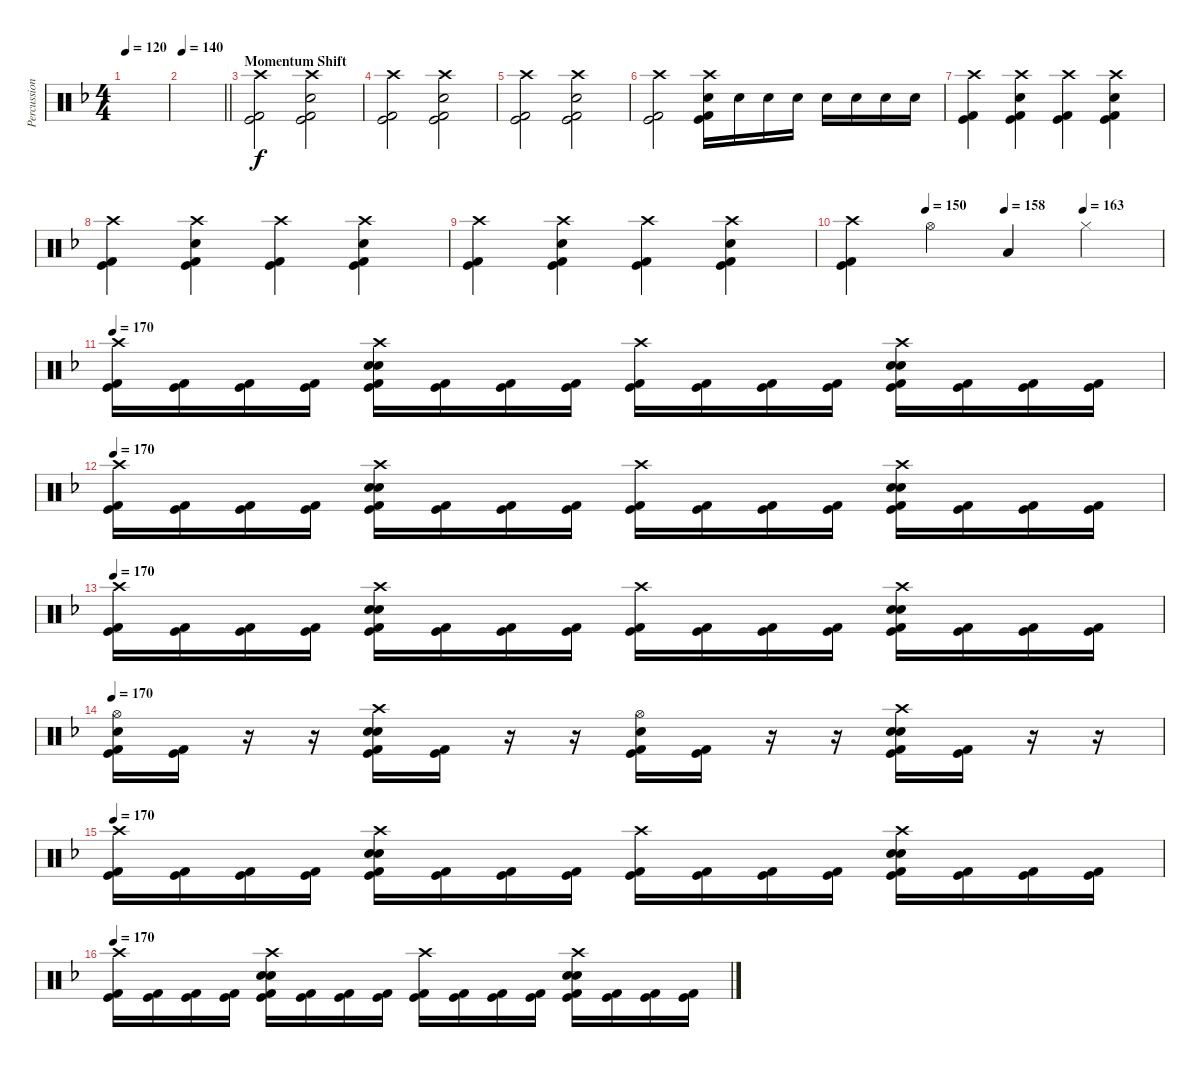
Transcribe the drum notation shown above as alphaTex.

\track ("Percussion" "Percussion") {instrument percussion}
\staff {score}
\articulation defaults
\ts (4 4)
\tempo 120
\clef neutral
\ks dminor
|
\tempo 140
\barLineRight lightlight
|
\section ("" "Momentum Shift")
("Crash high (hit)" "Kick (hit) 2" "Kick (hit)").2 ("Snare (hit) 2" "Crash high (hit)" "Kick (hit) 2" "Kick (hit)").2 |
("Crash high (hit)" "Kick (hit) 2" "Kick (hit)").2 ("Snare (hit) 2" "Crash high (hit)" "Kick (hit) 2" "Kick (hit)").2 |
("Crash high (hit)" "Kick (hit) 2" "Kick (hit)").2 ("Snare (hit) 2" "Crash high (hit)" "Kick (hit) 2" "Kick (hit)").2 |
("Crash high (hit)" "Kick (hit) 2" "Kick (hit)").2 ("Snare (hit) 2" "Crash high (hit)" "Kick (hit) 2" "Kick (hit)").16 "Snare (hit) 2".16 "Snare (hit) 2".16 "Snare (hit) 2".16 "Snare (hit) 2".16 "Snare (hit) 2".16 "Snare (hit) 2".16 "Snare (hit) 2".16 |
("Crash high (hit)" "Kick (hit) 2" "Kick (hit)").4 ("Snare (hit) 2" "Crash high (hit)" "Kick (hit) 2" "Kick (hit)").4 ("Crash high (hit)" "Kick (hit)" "Kick (hit) 2").4 ("Snare (hit) 2" "Crash high (hit)" "Kick (hit) 2" "Kick (hit)").4 |
("Crash high (hit)" "Kick (hit) 2" "Kick (hit)").4 ("Snare (hit) 2" "Crash high (hit)" "Kick (hit) 2" "Kick (hit)").4 ("Crash high (hit)" "Kick (hit)" "Kick (hit) 2").4 ("Snare (hit) 2" "Crash high (hit)" "Kick (hit) 2" "Kick (hit)").4 |
("Crash high (hit)" "Kick (hit) 2" "Kick (hit)").4 ("Snare (hit) 2" "Crash high (hit)" "Kick (hit) 2" "Kick (hit)").4 ("Crash high (hit)" "Kick (hit)" "Kick (hit) 2").4 ("Snare (hit) 2" "Crash high (hit)" "Kick (hit) 2" "Kick (hit)").4 |
\tempo (150 0.25)
\tempo (158 0.5)
\tempo (163 0.75)
("Crash high (hit)" "Kick (hit) 2" "Kick (hit)").4 "Hi-Hat (open)".4 "Low Floor Tom (hit)".4 "Hi-Hat (closed)".4 |
\tempo 170
("Crash high (hit)" "Kick (hit) 2" "Kick (hit)").16 ("Kick (hit) 2" "Kick (hit)").16 ("Kick (hit) 2" "Kick (hit)").16 ("Kick (hit) 2" "Kick (hit)").16 ("Crash high (hit)" "Electric Snare (hit)" "Electric Snare (hit)" "Kick (hit) 2" "Kick (hit)").16 ("Kick (hit) 2" "Kick (hit)").16 ("Kick (hit) 2" "Kick (hit)").16 ("Kick (hit) 2" "Kick (hit)").16 ("Crash high (hit)" "Kick (hit) 2" "Kick (hit)").16 ("Kick (hit) 2" "Kick (hit)").16 ("Kick (hit) 2" "Kick (hit)").16 ("Kick (hit) 2" "Kick (hit)").16 ("Crash high (hit)" "Electric Snare (hit)" "Electric Snare (hit)" "Kick (hit) 2" "Kick (hit)").16 ("Kick (hit) 2" "Kick (hit)").16 ("Kick (hit) 2" "Kick (hit)").16 ("Kick (hit) 2" "Kick (hit)").16 |
\tempo 170
("Crash high (hit)" "Kick (hit) 2" "Kick (hit)").16 ("Kick (hit) 2" "Kick (hit)").16 ("Kick (hit) 2" "Kick (hit)").16 ("Kick (hit) 2" "Kick (hit)").16 ("Crash high (hit)" "Electric Snare (hit)" "Electric Snare (hit)" "Kick (hit) 2" "Kick (hit)").16 ("Kick (hit) 2" "Kick (hit)").16 ("Kick (hit) 2" "Kick (hit)").16 ("Kick (hit) 2" "Kick (hit)").16 ("Crash high (hit)" "Kick (hit) 2" "Kick (hit)").16 ("Kick (hit) 2" "Kick (hit)").16 ("Kick (hit) 2" "Kick (hit)").16 ("Kick (hit) 2" "Kick (hit)").16 ("Crash high (hit)" "Electric Snare (hit)" "Electric Snare (hit)" "Kick (hit) 2" "Kick (hit)").16 ("Kick (hit) 2" "Kick (hit)").16 ("Kick (hit) 2" "Kick (hit)").16 ("Kick (hit) 2" "Kick (hit)").16 |
\tempo 170
("Crash high (hit)" "Kick (hit) 2" "Kick (hit)").16 ("Kick (hit) 2" "Kick (hit)").16 ("Kick (hit) 2" "Kick (hit)").16 ("Kick (hit) 2" "Kick (hit)").16 ("Crash high (hit)" "Electric Snare (hit)" "Electric Snare (hit)" "Kick (hit) 2" "Kick (hit)").16 ("Kick (hit) 2" "Kick (hit)").16 ("Kick (hit) 2" "Kick (hit)").16 ("Kick (hit) 2" "Kick (hit)").16 ("Crash high (hit)" "Kick (hit) 2" "Kick (hit)").16 ("Kick (hit) 2" "Kick (hit)").16 ("Kick (hit) 2" "Kick (hit)").16 ("Kick (hit) 2" "Kick (hit)").16 ("Crash high (hit)" "Electric Snare (hit)" "Electric Snare (hit)" "Kick (hit) 2" "Kick (hit)").16 ("Kick (hit) 2" "Kick (hit)").16 ("Kick (hit) 2" "Kick (hit)").16 ("Kick (hit) 2" "Kick (hit)").16 |
\tempo 170
("Hi-Hat (open)" "Snare (hit) 2" "Kick (hit) 2" "Kick (hit)").16 ("Kick (hit) 2" "Kick (hit)").16 r.16 r.16 ("Crash high (hit)" "Electric Snare (hit)" "Electric Snare (hit)" "Kick (hit) 2" "Kick (hit)").16 ("Kick (hit) 2" "Kick (hit)").16 r.16 r.16 ("Hi-Hat (open)" "Snare (hit) 2" "Kick (hit) 2" "Kick (hit)").16 ("Kick (hit) 2" "Kick (hit)").16 r.16 r.16 ("Crash high (hit)" "Electric Snare (hit)" "Electric Snare (hit)" "Kick (hit) 2" "Kick (hit)").16 ("Kick (hit) 2" "Kick (hit)").16 r.16 r.16 |
\tempo 170
("Crash high (hit)" "Kick (hit) 2" "Kick (hit)").16 ("Kick (hit) 2" "Kick (hit)").16 ("Kick (hit) 2" "Kick (hit)").16 ("Kick (hit) 2" "Kick (hit)").16 ("Crash high (hit)" "Electric Snare (hit)" "Electric Snare (hit)" "Kick (hit) 2" "Kick (hit)").16 ("Kick (hit) 2" "Kick (hit)").16 ("Kick (hit) 2" "Kick (hit)").16 ("Kick (hit) 2" "Kick (hit)").16 ("Crash high (hit)" "Kick (hit) 2" "Kick (hit)").16 ("Kick (hit) 2" "Kick (hit)").16 ("Kick (hit) 2" "Kick (hit)").16 ("Kick (hit) 2" "Kick (hit)").16 ("Crash high (hit)" "Electric Snare (hit)" "Electric Snare (hit)" "Kick (hit) 2" "Kick (hit)").16 ("Kick (hit) 2" "Kick (hit)").16 ("Kick (hit) 2" "Kick (hit)").16 ("Kick (hit) 2" "Kick (hit)").16 |
\tempo 170
("Crash high (hit)" "Kick (hit) 2" "Kick (hit)").16 ("Kick (hit) 2" "Kick (hit)").16 ("Kick (hit) 2" "Kick (hit)").16 ("Kick (hit) 2" "Kick (hit)").16 ("Crash high (hit)" "Electric Snare (hit)" "Electric Snare (hit)" "Kick (hit) 2" "Kick (hit)").16 ("Kick (hit) 2" "Kick (hit)").16 ("Kick (hit) 2" "Kick (hit)").16 ("Kick (hit) 2" "Kick (hit)").16 ("Crash high (hit)" "Kick (hit) 2" "Kick (hit)").16 ("Kick (hit) 2" "Kick (hit)").16 ("Kick (hit) 2" "Kick (hit)").16 ("Kick (hit) 2" "Kick (hit)").16 ("Crash high (hit)" "Electric Snare (hit)" "Electric Snare (hit)" "Kick (hit) 2" "Kick (hit)").16 ("Kick (hit) 2" "Kick (hit)").16 ("Kick (hit) 2" "Kick (hit)").16 ("Kick (hit) 2" "Kick (hit)").16
